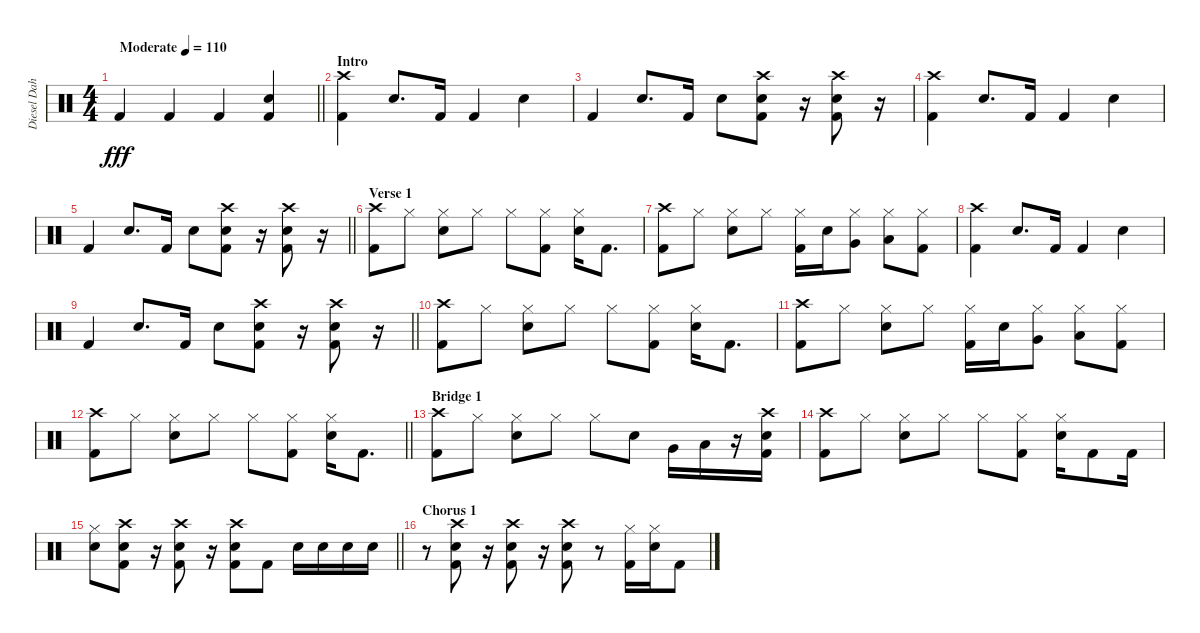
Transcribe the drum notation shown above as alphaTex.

\track ("Diesel Dahl" "Diesel Dah") {instrument percussion}
\staff {score}
\articulation defaults
\ts (4 4)
\tempo (110 "Moderate")
\clef neutral
\barLineRight lightlight
\ks c "Kick (hit) 2".4{dy fff} "Kick (hit) 2".4 "Kick (hit) 2".4
("Snare (hit) 2" "Kick (hit) 2").4 |
\section ("" "Intro")
("Crash high (hit)" "Kick (hit) 2").4 "Snare (hit) 2".8{d} "Kick (hit) 2".16 "Kick (hit) 2".4 "Snare (hit) 2".4 |
"Kick (hit) 2".4 "Snare (hit) 2".8{d} "Kick (hit) 2".16 "Snare (hit) 2".8 ("Crash high (hit)" "Snare (hit) 2" "Kick (hit) 2").8 r.16 ("Crash high (hit)" "Snare (hit) 2" "Kick (hit) 2").8 r.16 |
("Crash high (hit)" "Kick (hit) 2").4 "Snare (hit) 2".8{d} "Kick (hit) 2".16 "Kick (hit) 2".4 "Snare (hit) 2".4 |
\barLineRight lightlight "Kick (hit) 2".4 "Snare (hit) 2".8{d} "Kick (hit) 2".16 "Snare (hit) 2".8
("Crash high (hit)" "Snare (hit) 2" "Kick (hit) 2").8 r.16 ("Crash high (hit)" "Snare (hit) 2" "Kick (hit) 2").8 r.16 |
\section ("" "Verse 1")
("Crash high (hit)" "Kick (hit) 2").8 "Hi-Hat (closed)".8 ("Hi-Hat (closed)" "Snare (hit) 2").8 "Hi-Hat (closed)".8 "Hi-Hat (closed)".8 ("Hi-Hat (closed)" "Kick (hit) 2").8 ("Hi-Hat (closed)" "Snare (hit) 2").16 "Kick (hit) 2".8{d} |
("Crash high (hit)" "Kick (hit) 2").8 "Hi-Hat (closed)".8 ("Hi-Hat (closed)" "Snare (hit) 2").8 "Hi-Hat (closed)".8 ("Hi-Hat (closed)" "Kick (hit) 2").16 "Snare (hit) 2".16 ("Hi-Hat (closed)" "Very Low Tom (hit)").8 ("Hi-Hat (closed)" "Low Floor Tom (hit)").8 ("Hi-Hat (closed)" "Kick (hit) 2").8 |
("Crash high (hit)" "Kick (hit) 2").4 "Snare (hit) 2".8{d} "Kick (hit) 2".16 "Kick (hit) 2".4 "Snare (hit) 2".4 |
\barLineRight lightlight "Kick (hit) 2".4 "Snare (hit) 2".8{d} "Kick (hit) 2".16 "Snare (hit) 2".8
("Crash high (hit)" "Snare (hit) 2" "Kick (hit) 2").8 r.16 ("Crash high (hit)" "Snare (hit) 2" "Kick (hit) 2").8 r.16 |
("Crash high (hit)" "Kick (hit) 2").8 "Hi-Hat (closed)".8 ("Hi-Hat (closed)" "Snare (hit) 2").8 "Hi-Hat (closed)".8 "Hi-Hat (closed)".8 ("Hi-Hat (closed)" "Kick (hit) 2").8 ("Hi-Hat (closed)" "Snare (hit) 2").16 "Kick (hit) 2".8{d} |
("Crash high (hit)" "Kick (hit) 2").8 "Hi-Hat (closed)".8 ("Hi-Hat (closed)" "Snare (hit) 2").8 "Hi-Hat (closed)".8 ("Hi-Hat (closed)" "Kick (hit) 2").16 "Snare (hit) 2".16 ("Hi-Hat (closed)" "Very Low Tom (hit)").8 ("Hi-Hat (closed)" "Low Floor Tom (hit)").8 ("Hi-Hat (closed)" "Kick (hit) 2").8 |
\barLineRight lightlight
("Crash high (hit)" "Kick (hit) 2").8 "Hi-Hat (closed)".8 ("Hi-Hat (closed)" "Snare (hit) 2").8 "Hi-Hat (closed)".8 "Hi-Hat (closed)".8 ("Hi-Hat (closed)" "Kick (hit) 2").8 ("Hi-Hat (closed)" "Snare (hit) 2").16 "Kick (hit) 2".8{d} |
\section ("" "Bridge 1")
("Crash high (hit)" "Kick (hit) 2").8 "Hi-Hat (closed)".8 ("Hi-Hat (closed)" "Snare (hit) 2").8 "Hi-Hat (closed)".8 "Hi-Hat (closed)".8 "Snare (hit) 2".8 "Very Low Tom (hit)".16 "Low Floor Tom (hit)".16 r.16 ("Crash high (hit)" "Snare (hit) 2" "Kick (hit) 2").16 |
("Crash high (hit)" "Kick (hit) 2").8 "Hi-Hat (closed)".8 ("Hi-Hat (closed)" "Snare (hit) 2").8 "Hi-Hat (closed)".8 "Hi-Hat (closed)".8 ("Hi-Hat (closed)" "Kick (hit) 2").8 ("Hi-Hat (closed)" "Snare (hit) 2").16 "Kick (hit) 2".8 "Kick (hit) 2".16 |
\barLineRight lightlight
("Hi-Hat (closed)" "Snare (hit) 2").8 ("Crash high (hit)" "Snare (hit) 2" "Kick (hit) 2").8 r.16 ("Crash high (hit)" "Snare (hit) 2" "Kick (hit) 2").8 r.16 ("Crash high (hit)" "Snare (hit) 2" "Kick (hit) 2").8 "Kick (hit) 2".8 "Snare (hit) 2".16 "Snare (hit) 2".16 "Snare (hit) 2".16 "Snare (hit) 2".16 |
\section ("" "Chorus 1")
r.8 ("Crash high (hit)" "Snare (hit) 2" "Kick (hit) 2").8 r.16 ("Crash high (hit)" "Snare (hit) 2" "Kick (hit) 2").8 r.16 ("Crash high (hit)" "Snare (hit) 2" "Kick (hit) 2").8 r.8 ("Hi-Hat (closed)" "Kick (hit) 2").16 ("Hi-Hat (closed)" "Snare (hit) 2").16 "Kick (hit) 2".8
